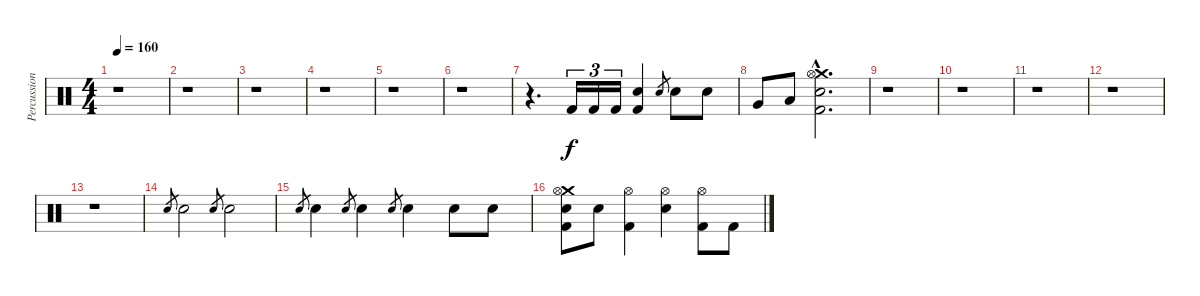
\track ("Percussion" "Percussion") {instrument percussion}
\staff {score}
\articulation defaults
\ts (4 4)
\tempo 160
\clef neutral
\ks c
r.1{dy f} |
r.1 |
r.1 |
r.1 |
r.1 |
r.1 |
r.4{d} "Kick (hit) 2".16{tu (3 2)} "Kick (hit) 2".16{tu (3 2)} "Kick (hit) 2".16{tu (3 2)} ("Electric Snare (hit)" "Kick (hit) 2").4 "Electric Snare (hit)".8{gr} "Electric Snare (hit)".8 "Electric Snare (hit)".8 |
"Very Low Tom (hit)".8 "Low Floor Tom (hit)".8 ("Crash medium (hit)"{hac} "Hi-Hat (open)"{hac} "Electric Snare (hit)"{hac} "Kick (hit) 2"{hac}).2{d} |
r.1 |
r.1 |
r.1 |
r.1 |
r.1 |
"Electric Snare (hit)".8{gr} "Electric Snare (hit)".2 "Electric Snare (hit)".8{gr} "Electric Snare (hit)".2 |
"Electric Snare (hit)".8{gr} "Electric Snare (hit)".4 "Electric Snare (hit)".8{gr} "Electric Snare (hit)".4 "Electric Snare (hit)".8{gr} "Electric Snare (hit)".4 "Electric Snare (hit)".8 "Electric Snare (hit)".8 |
("Crash medium (hit)" "Hi-Hat (open)" "Electric Snare (hit)" "Kick (hit) 2").8 "Electric Snare (hit)".8 ("Hi-Hat (open)" "Kick (hit) 2").4 ("Hi-Hat (open)" "Electric Snare (hit)").4 ("Hi-Hat (open)" "Kick (hit) 2").8 "Kick (hit) 2".8
